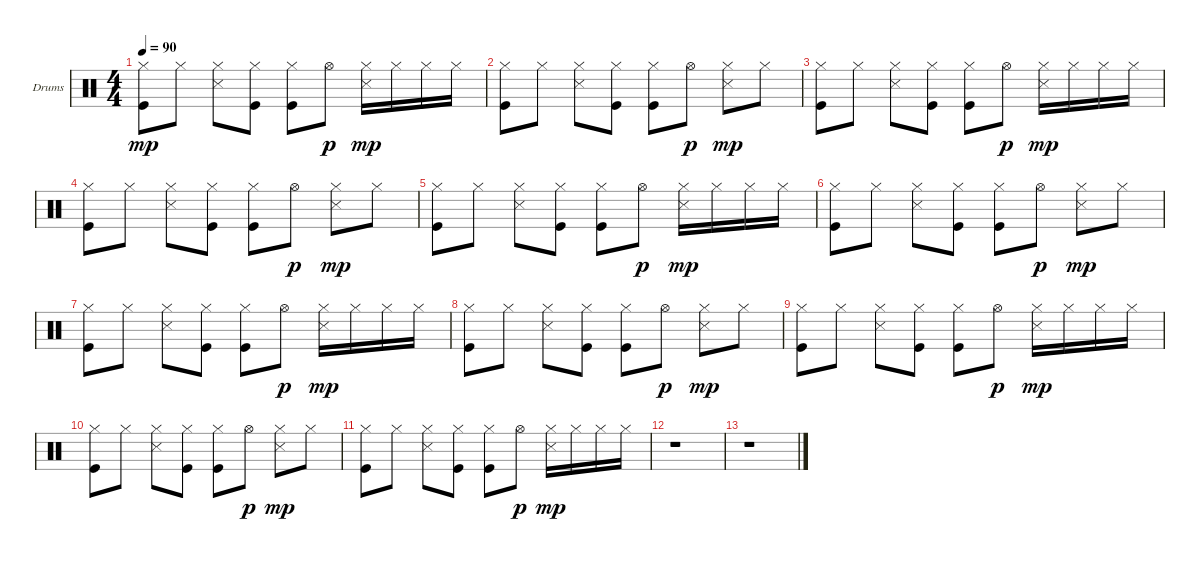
\bracketExtendMode groupsimilarinstruments
\firstSystemTrackNameOrientation horizontal
\otherSystemsTrackNameOrientation horizontal
\track ("Drumkit" "Drums") {instrument percussion}
\staff {score}
\articulation defaults
\ts (4 4)
\tempo 90
\clef neutral
\ks c
("Hi-Hat (closed)" "Kick (hit)").8{dy mp} "Hi-Hat (closed)".8 ("Hi-Hat (closed)" "Snare (side stick) 3").8 ("Hi-Hat (closed)" "Kick (hit)").8 ("Hi-Hat (closed)" "Kick (hit)").8 "Hi-Hat (open)".8{dy p} ("Hi-Hat (closed)" "Snare (side stick) 3").16{dy mp} "Hi-Hat (closed)".16 "Hi-Hat (closed)".16 "Hi-Hat (closed)".16 |
("Hi-Hat (closed)" "Kick (hit)").8 "Hi-Hat (closed)".8 ("Hi-Hat (closed)" "Snare (side stick) 3").8 ("Hi-Hat (closed)" "Kick (hit)").8 ("Hi-Hat (closed)" "Kick (hit)").8 "Hi-Hat (open)".8{dy p} ("Hi-Hat (closed)" "Snare (side stick) 3").8{dy mp} "Hi-Hat (closed)".8 |
("Hi-Hat (closed)" "Kick (hit)").8 "Hi-Hat (closed)".8 ("Hi-Hat (closed)" "Snare (side stick) 3").8 ("Hi-Hat (closed)" "Kick (hit)").8 ("Hi-Hat (closed)" "Kick (hit)").8 "Hi-Hat (open)".8{dy p} ("Hi-Hat (closed)" "Snare (side stick) 3").16{dy mp} "Hi-Hat (closed)".16 "Hi-Hat (closed)".16 "Hi-Hat (closed)".16 |
("Hi-Hat (closed)" "Kick (hit)").8 "Hi-Hat (closed)".8 ("Hi-Hat (closed)" "Snare (side stick) 3").8 ("Hi-Hat (closed)" "Kick (hit)").8 ("Hi-Hat (closed)" "Kick (hit)").8 "Hi-Hat (open)".8{dy p} ("Hi-Hat (closed)" "Snare (side stick) 3").8{dy mp} "Hi-Hat (closed)".8 |
("Hi-Hat (closed)" "Kick (hit)").8 "Hi-Hat (closed)".8 ("Hi-Hat (closed)" "Snare (side stick) 3").8 ("Hi-Hat (closed)" "Kick (hit)").8 ("Hi-Hat (closed)" "Kick (hit)").8 "Hi-Hat (open)".8{dy p} ("Hi-Hat (closed)" "Snare (side stick) 3").16{dy mp} "Hi-Hat (closed)".16 "Hi-Hat (closed)".16 "Hi-Hat (closed)".16 |
("Hi-Hat (closed)" "Kick (hit)").8 "Hi-Hat (closed)".8 ("Hi-Hat (closed)" "Snare (side stick) 3").8 ("Hi-Hat (closed)" "Kick (hit)").8 ("Hi-Hat (closed)" "Kick (hit)").8 "Hi-Hat (open)".8{dy p} ("Hi-Hat (closed)" "Snare (side stick) 3").8{dy mp} "Hi-Hat (closed)".8 |
("Hi-Hat (closed)" "Kick (hit)").8 "Hi-Hat (closed)".8 ("Hi-Hat (closed)" "Snare (side stick) 3").8 ("Hi-Hat (closed)" "Kick (hit)").8 ("Hi-Hat (closed)" "Kick (hit)").8 "Hi-Hat (open)".8{dy p} ("Hi-Hat (closed)" "Snare (side stick) 3").16{dy mp} "Hi-Hat (closed)".16 "Hi-Hat (closed)".16 "Hi-Hat (closed)".16 |
("Hi-Hat (closed)" "Kick (hit)").8 "Hi-Hat (closed)".8 ("Hi-Hat (closed)" "Snare (side stick) 3").8 ("Hi-Hat (closed)" "Kick (hit)").8 ("Hi-Hat (closed)" "Kick (hit)").8 "Hi-Hat (open)".8{dy p} ("Hi-Hat (closed)" "Snare (side stick) 3").8{dy mp} "Hi-Hat (closed)".8 |
("Hi-Hat (closed)" "Kick (hit)").8 "Hi-Hat (closed)".8 ("Hi-Hat (closed)" "Snare (side stick) 3").8 ("Hi-Hat (closed)" "Kick (hit)").8 ("Hi-Hat (closed)" "Kick (hit)").8 "Hi-Hat (open)".8{dy p} ("Hi-Hat (closed)" "Snare (side stick) 3").16{dy mp} "Hi-Hat (closed)".16 "Hi-Hat (closed)".16 "Hi-Hat (closed)".16 |
("Hi-Hat (closed)" "Kick (hit)").8 "Hi-Hat (closed)".8 ("Hi-Hat (closed)" "Snare (side stick) 3").8 ("Hi-Hat (closed)" "Kick (hit)").8 ("Hi-Hat (closed)" "Kick (hit)").8 "Hi-Hat (open)".8{dy p} ("Hi-Hat (closed)" "Snare (side stick) 3").8{dy mp} "Hi-Hat (closed)".8 |
("Hi-Hat (closed)" "Kick (hit)").8 "Hi-Hat (closed)".8 ("Hi-Hat (closed)" "Snare (side stick) 3").8 ("Hi-Hat (closed)" "Kick (hit)").8 ("Hi-Hat (closed)" "Kick (hit)").8 "Hi-Hat (open)".8{dy p} ("Hi-Hat (closed)" "Snare (side stick) 3").16{dy mp} "Hi-Hat (closed)".16 "Hi-Hat (closed)".16 "Hi-Hat (closed)".16 |
r.1 |
r.1
